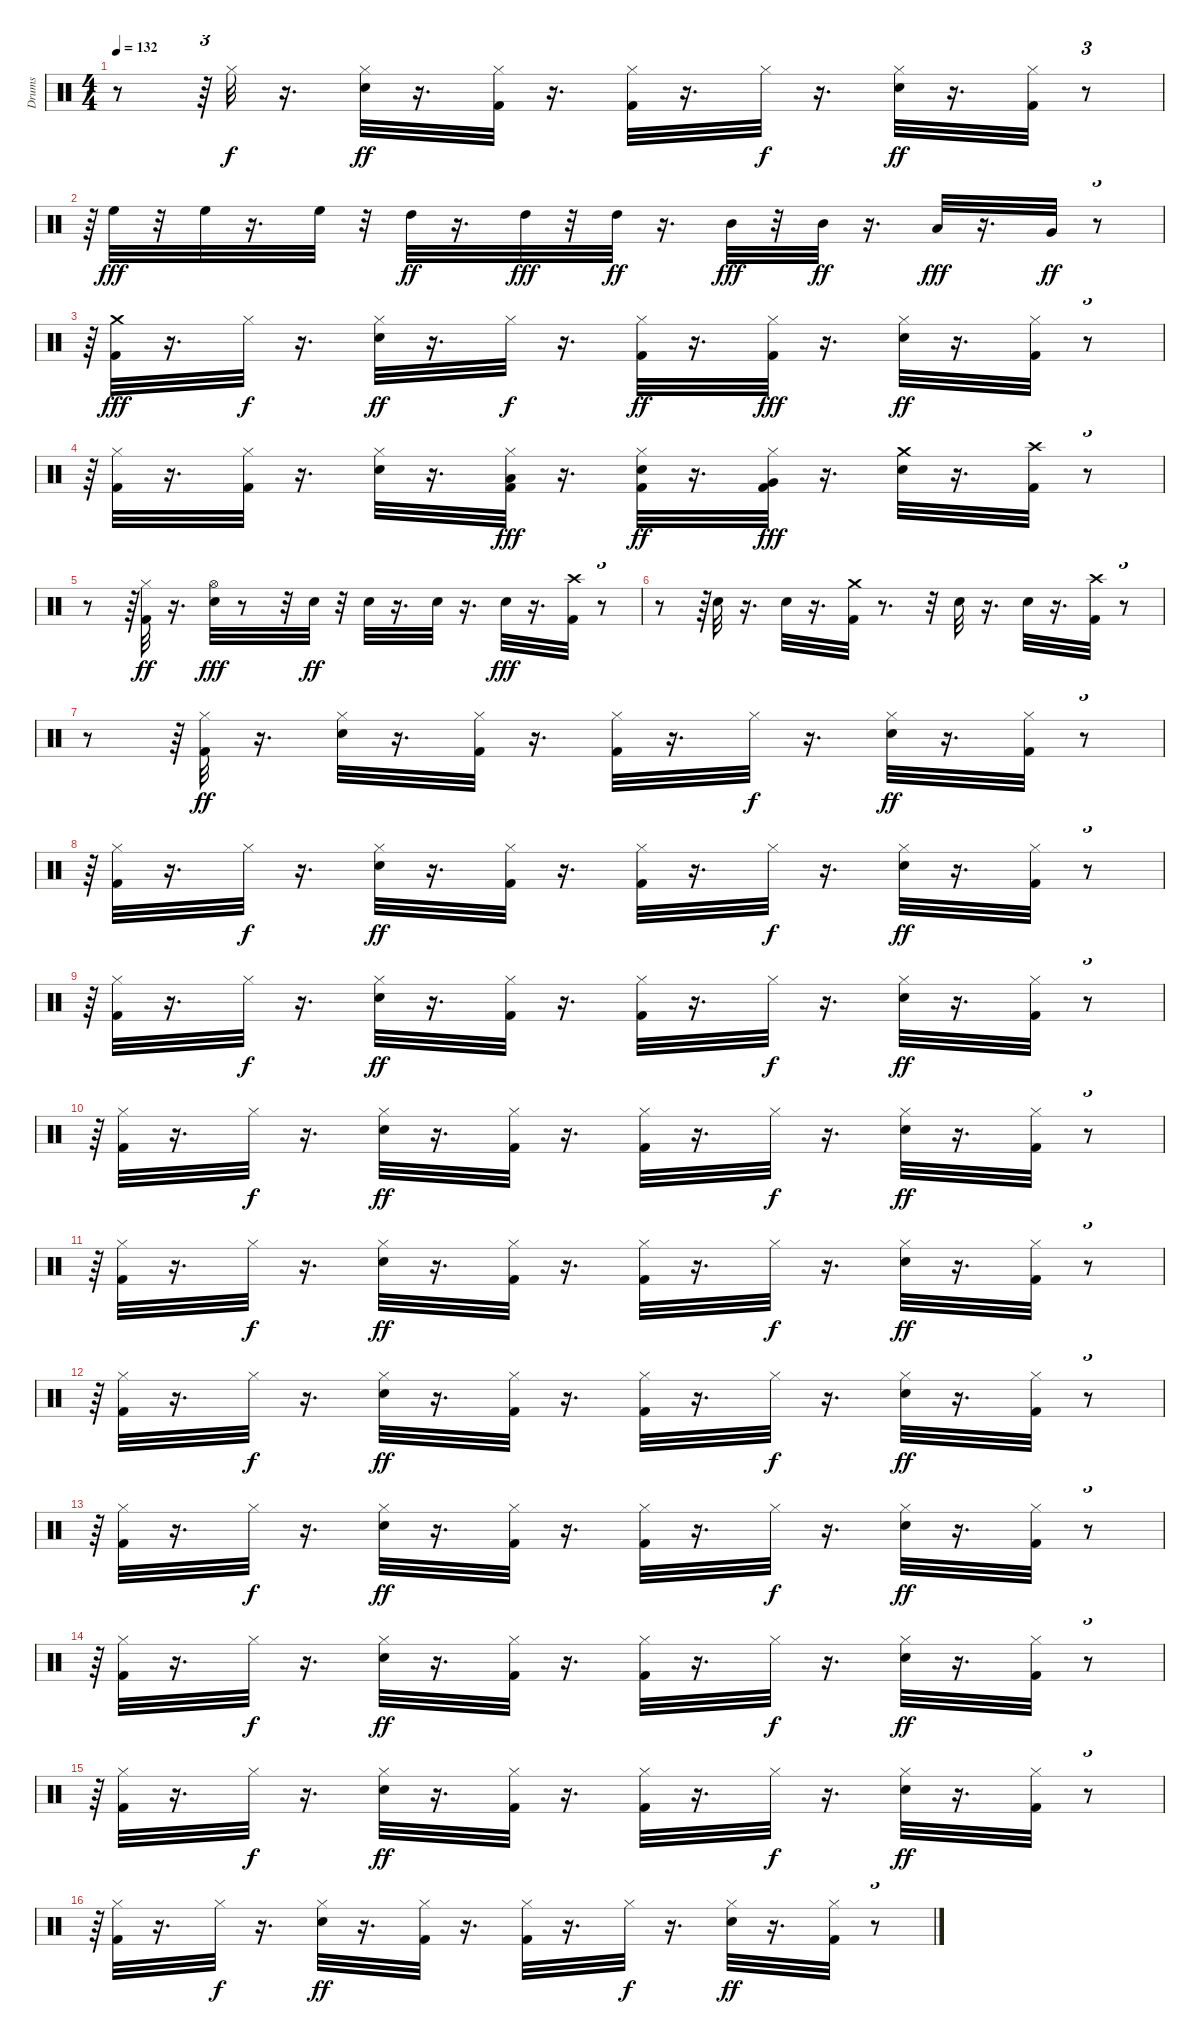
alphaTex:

\track ("Drums" "Drums") {instrument percussion}
\staff {score}
\articulation defaults
\ts (4 4)
\tempo 132
\clef neutral
\ks c
r.8{dy fff} r.64{tu (3 2)} "Hi-Hat (closed)".32{dy f} r.16{d} ("Snare (hit) 2" "Hi-Hat (closed)").32{dy ff} r.16{d} ("Kick (hit) 2" "Hi-Hat (closed)").32 r.16{d} ("Kick (hit) 2" "Hi-Hat (closed)").32 r.16{d} "Hi-Hat (closed)".32{dy f} r.16{d} ("Snare (hit) 2" "Hi-Hat (closed)").32{dy ff} r.16{d} ("Kick (hit) 2" "Hi-Hat (closed)").32 r.8{tu (3 2)} |
r.64{tu (3 2)} "High Floor Tom (hit)".32{dy fff} r.32 "High Floor Tom (hit)".32 r.16{d} "High Floor Tom (hit)".32 r.32 "High Tom (hit)".32{dy ff} r.16{d} "High Tom (hit)".32{dy fff} r.32 "High Tom (hit)".32{dy ff} r.16{d} "Mid Tom (hit)".32{dy fff} r.32 "Mid Tom (hit)".32{dy ff} r.16{d} "Low Tom (hit)".32{dy fff} r.16{d} "Very Low Tom (hit)".32{dy ff} r.8{tu (3 2)} |
r.64{tu (3 2)} ("Kick (hit) 2" "Crash medium (hit)").32{dy fff} r.16{d} "Hi-Hat (closed)".32{dy f} r.16{d} ("Snare (hit) 2" "Hi-Hat (closed)").32{dy ff} r.16{d} "Hi-Hat (closed)".32{dy f} r.16{d} ("Kick (hit) 2" "Hi-Hat (closed)").32{dy ff} r.16{d} ("Kick (hit) 2" "Hi-Hat (closed)").32{dy fff} r.16{d} ("Snare (hit) 2" "Hi-Hat (closed)").32{dy ff} r.16{d} ("Kick (hit) 2" "Hi-Hat (closed)").32 r.8{tu (3 2)} |
r.64{tu (3 2)} ("Kick (hit) 2" "Hi-Hat (closed)").32 r.16{d} ("Kick (hit) 2" "Hi-Hat (closed)").32 r.16{d} ("Snare (hit) 2" "Hi-Hat (closed)").32 r.16{d} ("Kick (hit) 2" "Hi-Hat (closed)" "Low Tom (hit)").32{dy fff} r.16{d} ("Kick (hit) 2" "Snare (hit) 2" "Hi-Hat (closed)").32{dy ff} r.16{d} ("Kick (hit) 2" "Hi-Hat (closed)" "Very Low Tom (hit)").32{dy fff} r.16{d} ("Snare (hit) 2" "Crash medium (hit)").32 r.16{d} ("Kick (hit) 2" "Crash high (hit)").32 r.8{tu (3 2)} |
r.8 r.64{tu (3 2)} ("Kick (hit) 2" "Hi-Hat (closed)").32{dy ff} r.16{d} ("Snare (hit) 2" "Hi-Hat (open)").32{dy fff} r.8 r.32 "Snare (hit) 2".32{dy ff} r.32 "Snare (hit) 2".32 r.16{d} "Snare (hit) 2".32 r.16{d} "Snare (hit) 2".32{dy fff} r.16{d} ("Kick (hit) 2" "Crash high (hit)").32 r.8{tu (3 2)} |
r.8 r.64{tu (3 2)} "Snare (hit) 2".32 r.16{d} "Snare (hit) 2".32 r.16{d} ("Kick (hit) 2" "Crash medium (hit)").32 r.8{d} r.32 "Snare (hit) 2".32 r.16{d} "Snare (hit) 2".32 r.16{d} ("Kick (hit) 2" "Crash high (hit)").32 r.8{tu (3 2)} |
r.8 r.64{tu (3 2)} ("Kick (hit) 2" "Hi-Hat (closed)").32{dy ff} r.16{d} ("Snare (hit) 2" "Hi-Hat (closed)").32 r.16{d} ("Kick (hit) 2" "Hi-Hat (closed)").32 r.16{d} ("Kick (hit) 2" "Hi-Hat (closed)").32 r.16{d} "Hi-Hat (closed)".32{dy f} r.16{d} ("Snare (hit) 2" "Hi-Hat (closed)").32{dy ff} r.16{d} ("Kick (hit) 2" "Hi-Hat (closed)").32 r.8{tu (3 2)} |
r.64{tu (3 2)} ("Kick (hit) 2" "Hi-Hat (closed)").32 r.16{d} "Hi-Hat (closed)".32{dy f} r.16{d} ("Snare (hit) 2" "Hi-Hat (closed)").32{dy ff} r.16{d} ("Kick (hit) 2" "Hi-Hat (closed)").32 r.16{d} ("Kick (hit) 2" "Hi-Hat (closed)").32 r.16{d} "Hi-Hat (closed)".32{dy f} r.16{d} ("Snare (hit) 2" "Hi-Hat (closed)").32{dy ff} r.16{d} ("Kick (hit) 2" "Hi-Hat (closed)").32 r.8{tu (3 2)} |
r.64{tu (3 2)} ("Kick (hit) 2" "Hi-Hat (closed)").32 r.16{d} "Hi-Hat (closed)".32{dy f} r.16{d} ("Snare (hit) 2" "Hi-Hat (closed)").32{dy ff} r.16{d} ("Kick (hit) 2" "Hi-Hat (closed)").32 r.16{d} ("Kick (hit) 2" "Hi-Hat (closed)").32 r.16{d} "Hi-Hat (closed)".32{dy f} r.16{d} ("Snare (hit) 2" "Hi-Hat (closed)").32{dy ff} r.16{d} ("Kick (hit) 2" "Hi-Hat (closed)").32 r.8{tu (3 2)} |
r.64{tu (3 2)} ("Kick (hit) 2" "Hi-Hat (closed)").32 r.16{d} "Hi-Hat (closed)".32{dy f} r.16{d} ("Snare (hit) 2" "Hi-Hat (closed)").32{dy ff} r.16{d} ("Kick (hit) 2" "Hi-Hat (closed)").32 r.16{d} ("Kick (hit) 2" "Hi-Hat (closed)").32 r.16{d} "Hi-Hat (closed)".32{dy f} r.16{d} ("Snare (hit) 2" "Hi-Hat (closed)").32{dy ff} r.16{d} ("Kick (hit) 2" "Hi-Hat (closed)").32 r.8{tu (3 2)} |
r.64{tu (3 2)} ("Kick (hit) 2" "Hi-Hat (closed)").32 r.16{d} "Hi-Hat (closed)".32{dy f} r.16{d} ("Snare (hit) 2" "Hi-Hat (closed)").32{dy ff} r.16{d} ("Kick (hit) 2" "Hi-Hat (closed)").32 r.16{d} ("Kick (hit) 2" "Hi-Hat (closed)").32 r.16{d} "Hi-Hat (closed)".32{dy f} r.16{d} ("Snare (hit) 2" "Hi-Hat (closed)").32{dy ff} r.16{d} ("Kick (hit) 2" "Hi-Hat (closed)").32 r.8{tu (3 2)} |
r.64{tu (3 2)} ("Kick (hit) 2" "Hi-Hat (closed)").32 r.16{d} "Hi-Hat (closed)".32{dy f} r.16{d} ("Snare (hit) 2" "Hi-Hat (closed)").32{dy ff} r.16{d} ("Kick (hit) 2" "Hi-Hat (closed)").32 r.16{d} ("Kick (hit) 2" "Hi-Hat (closed)").32 r.16{d} "Hi-Hat (closed)".32{dy f} r.16{d} ("Snare (hit) 2" "Hi-Hat (closed)").32{dy ff} r.16{d} ("Kick (hit) 2" "Hi-Hat (closed)").32 r.8{tu (3 2)} |
r.64{tu (3 2)} ("Kick (hit) 2" "Hi-Hat (closed)").32 r.16{d} "Hi-Hat (closed)".32{dy f} r.16{d} ("Snare (hit) 2" "Hi-Hat (closed)").32{dy ff} r.16{d} ("Kick (hit) 2" "Hi-Hat (closed)").32 r.16{d} ("Kick (hit) 2" "Hi-Hat (closed)").32 r.16{d} "Hi-Hat (closed)".32{dy f} r.16{d} ("Snare (hit) 2" "Hi-Hat (closed)").32{dy ff} r.16{d} ("Kick (hit) 2" "Hi-Hat (closed)").32 r.8{tu (3 2)} |
r.64{tu (3 2)} ("Kick (hit) 2" "Hi-Hat (closed)").32 r.16{d} "Hi-Hat (closed)".32{dy f} r.16{d} ("Snare (hit) 2" "Hi-Hat (closed)").32{dy ff} r.16{d} ("Kick (hit) 2" "Hi-Hat (closed)").32 r.16{d} ("Kick (hit) 2" "Hi-Hat (closed)").32 r.16{d} "Hi-Hat (closed)".32{dy f} r.16{d} ("Snare (hit) 2" "Hi-Hat (closed)").32{dy ff} r.16{d} ("Kick (hit) 2" "Hi-Hat (closed)").32 r.8{tu (3 2)} |
r.64{tu (3 2)} ("Kick (hit) 2" "Hi-Hat (closed)").32 r.16{d} "Hi-Hat (closed)".32{dy f} r.16{d} ("Snare (hit) 2" "Hi-Hat (closed)").32{dy ff} r.16{d} ("Kick (hit) 2" "Hi-Hat (closed)").32 r.16{d} ("Kick (hit) 2" "Hi-Hat (closed)").32 r.16{d} "Hi-Hat (closed)".32{dy f} r.16{d} ("Snare (hit) 2" "Hi-Hat (closed)").32{dy ff} r.16{d} ("Kick (hit) 2" "Hi-Hat (closed)").32 r.8{tu (3 2)} |
r.64{tu (3 2)} ("Kick (hit) 2" "Hi-Hat (closed)").32 r.16{d} "Hi-Hat (closed)".32{dy f} r.16{d} ("Snare (hit) 2" "Hi-Hat (closed)").32{dy ff} r.16{d} ("Kick (hit) 2" "Hi-Hat (closed)").32 r.16{d} ("Kick (hit) 2" "Hi-Hat (closed)").32 r.16{d} "Hi-Hat (closed)".32{dy f} r.16{d} ("Snare (hit) 2" "Hi-Hat (closed)").32{dy ff} r.16{d} ("Kick (hit) 2" "Hi-Hat (closed)").32 r.8{tu (3 2)}
